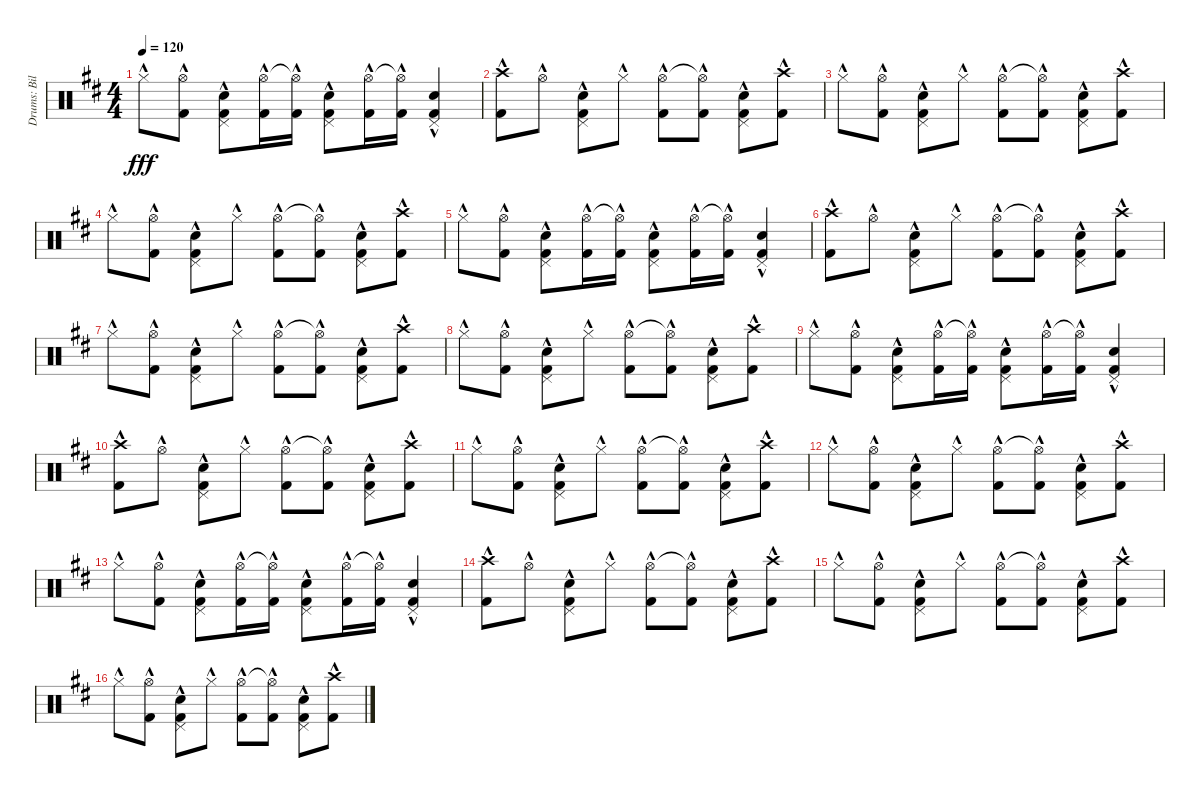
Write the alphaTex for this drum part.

\track ("Drums: Bill" "Drums: Bil") {instrument percussion}
\staff {score}
\articulation defaults
\ts (4 4)
\tempo 120
\clef neutral
\ks d "Hi-Hat (closed)"{hac}.8{dy fff}
("Hi-Hat (open)"{hac} "Kick (hit) 2"{hac}).8 ("Pedal Hi-Hat (hit)"{hac} "Snare (hit) 2"{hac} "Kick (hit) 2"{hac}).8 ("Hi-Hat (open)"{hac} "Kick (hit) 2"{hac}).16 ("Hi-Hat (open)"{t} "Kick (hit) 2"{hac}).16 ("Pedal Hi-Hat (hit)"{hac} "Snare (hit) 2"{hac} "Kick (hit) 2"{hac}).8 ("Hi-Hat (open)"{hac} "Kick (hit) 2"{hac}).16 ("Hi-Hat (open)"{t} "Kick (hit) 2"{hac}).16 ("Pedal Hi-Hat (hit)"{hac} "Snare (hit) 2"{hac} "Kick (hit) 2"{hac}).4 |
("Crash high (hit)"{hac} "Kick (hit) 2"{hac}).8 "Hi-Hat (open)"{hac}.8 ("Pedal Hi-Hat (hit)"{hac} "Snare (hit) 2"{hac} "Kick (hit) 2"{hac}).8 "Hi-Hat (closed)"{hac}.8 ("Hi-Hat (open)"{hac} "Kick (hit) 2"{hac}).8 ("Hi-Hat (open)"{t} "Kick (hit) 2"{hac}).8 ("Pedal Hi-Hat (hit)"{hac} "Snare (hit) 2"{hac} "Kick (hit) 2"{hac}).8 ("Crash high (hit)"{hac} "Kick (hit) 2"{hac}).8 |
"Hi-Hat (closed)"{hac}.8 ("Hi-Hat (open)"{hac} "Kick (hit) 2"{hac}).8 ("Pedal Hi-Hat (hit)"{hac} "Snare (hit) 2"{hac} "Kick (hit) 2"{hac}).8 "Hi-Hat (closed)"{hac}.8 ("Hi-Hat (open)"{hac} "Kick (hit) 2"{hac}).8 ("Hi-Hat (open)"{t} "Kick (hit) 2"{hac}).8 ("Pedal Hi-Hat (hit)"{hac} "Snare (hit) 2"{hac} "Kick (hit) 2"{hac}).8 ("Crash high (hit)"{hac} "Kick (hit) 2"{hac}).8 |
"Hi-Hat (closed)"{hac}.8 ("Hi-Hat (open)"{hac} "Kick (hit) 2"{hac}).8 ("Pedal Hi-Hat (hit)"{hac} "Snare (hit) 2"{hac} "Kick (hit) 2"{hac}).8 "Hi-Hat (closed)"{hac}.8 ("Hi-Hat (open)"{hac} "Kick (hit) 2"{hac}).8 ("Hi-Hat (open)"{t} "Kick (hit) 2"{hac}).8 ("Pedal Hi-Hat (hit)"{hac} "Snare (hit) 2"{hac} "Kick (hit) 2"{hac}).8 ("Crash high (hit)"{hac} "Kick (hit) 2"{hac}).8 |
"Hi-Hat (closed)"{hac}.8 ("Hi-Hat (open)"{hac} "Kick (hit) 2"{hac}).8 ("Pedal Hi-Hat (hit)"{hac} "Snare (hit) 2"{hac} "Kick (hit) 2"{hac}).8 ("Hi-Hat (open)"{hac} "Kick (hit) 2"{hac}).16 ("Hi-Hat (open)"{t} "Kick (hit) 2"{hac}).16 ("Pedal Hi-Hat (hit)"{hac} "Snare (hit) 2"{hac} "Kick (hit) 2"{hac}).8 ("Hi-Hat (open)"{hac} "Kick (hit) 2"{hac}).16 ("Hi-Hat (open)"{t} "Kick (hit) 2"{hac}).16 ("Pedal Hi-Hat (hit)"{hac} "Snare (hit) 2"{hac} "Kick (hit) 2"{hac}).4 |
("Crash high (hit)"{hac} "Kick (hit) 2"{hac}).8 "Hi-Hat (open)"{hac}.8 ("Pedal Hi-Hat (hit)"{hac} "Snare (hit) 2"{hac} "Kick (hit) 2"{hac}).8 "Hi-Hat (closed)"{hac}.8 ("Hi-Hat (open)"{hac} "Kick (hit) 2"{hac}).8 ("Hi-Hat (open)"{t} "Kick (hit) 2"{hac}).8 ("Pedal Hi-Hat (hit)"{hac} "Snare (hit) 2"{hac} "Kick (hit) 2"{hac}).8 ("Crash high (hit)"{hac} "Kick (hit) 2"{hac}).8 |
"Hi-Hat (closed)"{hac}.8 ("Hi-Hat (open)"{hac} "Kick (hit) 2"{hac}).8 ("Pedal Hi-Hat (hit)"{hac} "Snare (hit) 2"{hac} "Kick (hit) 2"{hac}).8 "Hi-Hat (closed)"{hac}.8 ("Hi-Hat (open)"{hac} "Kick (hit) 2"{hac}).8 ("Hi-Hat (open)"{t} "Kick (hit) 2"{hac}).8 ("Pedal Hi-Hat (hit)"{hac} "Snare (hit) 2"{hac} "Kick (hit) 2"{hac}).8 ("Crash high (hit)"{hac} "Kick (hit) 2"{hac}).8 |
"Hi-Hat (closed)"{hac}.8 ("Hi-Hat (open)"{hac} "Kick (hit) 2"{hac}).8 ("Pedal Hi-Hat (hit)"{hac} "Snare (hit) 2"{hac} "Kick (hit) 2"{hac}).8 "Hi-Hat (closed)"{hac}.8 ("Hi-Hat (open)"{hac} "Kick (hit) 2"{hac}).8 ("Hi-Hat (open)"{t} "Kick (hit) 2"{hac}).8 ("Pedal Hi-Hat (hit)"{hac} "Snare (hit) 2"{hac} "Kick (hit) 2"{hac}).8 ("Crash high (hit)"{hac} "Kick (hit) 2"{hac}).8 |
"Hi-Hat (closed)"{hac}.8 ("Hi-Hat (open)"{hac} "Kick (hit) 2"{hac}).8 ("Pedal Hi-Hat (hit)"{hac} "Snare (hit) 2"{hac} "Kick (hit) 2"{hac}).8 ("Hi-Hat (open)"{hac} "Kick (hit) 2"{hac}).16 ("Hi-Hat (open)"{t} "Kick (hit) 2"{hac}).16 ("Pedal Hi-Hat (hit)"{hac} "Snare (hit) 2"{hac} "Kick (hit) 2"{hac}).8 ("Hi-Hat (open)"{hac} "Kick (hit) 2"{hac}).16 ("Hi-Hat (open)"{t} "Kick (hit) 2"{hac}).16 ("Pedal Hi-Hat (hit)"{hac} "Snare (hit) 2"{hac} "Kick (hit) 2"{hac}).4 |
("Crash high (hit)"{hac} "Kick (hit) 2"{hac}).8 "Hi-Hat (open)"{hac}.8 ("Pedal Hi-Hat (hit)"{hac} "Snare (hit) 2"{hac} "Kick (hit) 2"{hac}).8 "Hi-Hat (closed)"{hac}.8 ("Hi-Hat (open)"{hac} "Kick (hit) 2"{hac}).8 ("Hi-Hat (open)"{t} "Kick (hit) 2"{hac}).8 ("Pedal Hi-Hat (hit)"{hac} "Snare (hit) 2"{hac} "Kick (hit) 2"{hac}).8 ("Crash high (hit)"{hac} "Kick (hit) 2"{hac}).8 |
"Hi-Hat (closed)"{hac}.8 ("Hi-Hat (open)"{hac} "Kick (hit) 2"{hac}).8 ("Pedal Hi-Hat (hit)"{hac} "Snare (hit) 2"{hac} "Kick (hit) 2"{hac}).8 "Hi-Hat (closed)"{hac}.8 ("Hi-Hat (open)"{hac} "Kick (hit) 2"{hac}).8 ("Hi-Hat (open)"{t} "Kick (hit) 2"{hac}).8 ("Pedal Hi-Hat (hit)"{hac} "Snare (hit) 2"{hac} "Kick (hit) 2"{hac}).8 ("Crash high (hit)"{hac} "Kick (hit) 2"{hac}).8 |
"Hi-Hat (closed)"{hac}.8 ("Hi-Hat (open)"{hac} "Kick (hit) 2"{hac}).8 ("Pedal Hi-Hat (hit)"{hac} "Snare (hit) 2"{hac} "Kick (hit) 2"{hac}).8 "Hi-Hat (closed)"{hac}.8 ("Hi-Hat (open)"{hac} "Kick (hit) 2"{hac}).8 ("Hi-Hat (open)"{t} "Kick (hit) 2"{hac}).8 ("Pedal Hi-Hat (hit)"{hac} "Snare (hit) 2"{hac} "Kick (hit) 2"{hac}).8 ("Crash high (hit)"{hac} "Kick (hit) 2"{hac}).8 |
"Hi-Hat (closed)"{hac}.8 ("Hi-Hat (open)"{hac} "Kick (hit) 2"{hac}).8 ("Pedal Hi-Hat (hit)"{hac} "Snare (hit) 2"{hac} "Kick (hit) 2"{hac}).8 ("Hi-Hat (open)"{hac} "Kick (hit) 2"{hac}).16 ("Hi-Hat (open)"{t} "Kick (hit) 2"{hac}).16 ("Pedal Hi-Hat (hit)"{hac} "Snare (hit) 2"{hac} "Kick (hit) 2"{hac}).8 ("Hi-Hat (open)"{hac} "Kick (hit) 2"{hac}).16 ("Hi-Hat (open)"{t} "Kick (hit) 2"{hac}).16 ("Pedal Hi-Hat (hit)"{hac} "Snare (hit) 2"{hac} "Kick (hit) 2"{hac}).4 |
("Crash high (hit)"{hac} "Kick (hit) 2"{hac}).8 "Hi-Hat (open)"{hac}.8 ("Pedal Hi-Hat (hit)"{hac} "Snare (hit) 2"{hac} "Kick (hit) 2"{hac}).8 "Hi-Hat (closed)"{hac}.8 ("Hi-Hat (open)"{hac} "Kick (hit) 2"{hac}).8 ("Hi-Hat (open)"{t} "Kick (hit) 2"{hac}).8 ("Pedal Hi-Hat (hit)"{hac} "Snare (hit) 2"{hac} "Kick (hit) 2"{hac}).8 ("Crash high (hit)"{hac} "Kick (hit) 2"{hac}).8 |
"Hi-Hat (closed)"{hac}.8 ("Hi-Hat (open)"{hac} "Kick (hit) 2"{hac}).8 ("Pedal Hi-Hat (hit)"{hac} "Snare (hit) 2"{hac} "Kick (hit) 2"{hac}).8 "Hi-Hat (closed)"{hac}.8 ("Hi-Hat (open)"{hac} "Kick (hit) 2"{hac}).8 ("Hi-Hat (open)"{t} "Kick (hit) 2"{hac}).8 ("Pedal Hi-Hat (hit)"{hac} "Snare (hit) 2"{hac} "Kick (hit) 2"{hac}).8 ("Crash high (hit)"{hac} "Kick (hit) 2"{hac}).8 |
"Hi-Hat (closed)"{hac}.8 ("Hi-Hat (open)"{hac} "Kick (hit) 2"{hac}).8 ("Pedal Hi-Hat (hit)"{hac} "Snare (hit) 2"{hac} "Kick (hit) 2"{hac}).8 "Hi-Hat (closed)"{hac}.8 ("Hi-Hat (open)"{hac} "Kick (hit) 2"{hac}).8 ("Hi-Hat (open)"{t} "Kick (hit) 2"{hac}).8 ("Pedal Hi-Hat (hit)"{hac} "Snare (hit) 2"{hac} "Kick (hit) 2"{hac}).8 ("Crash high (hit)"{hac} "Kick (hit) 2"{hac}).8
